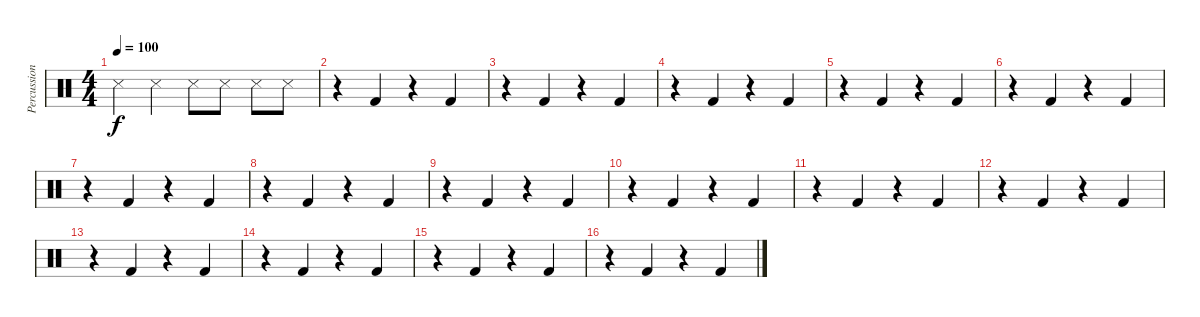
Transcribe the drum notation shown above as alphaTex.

\track ("Percussion" "Percussion") {instrument percussion}
\staff {score}
\articulation defaults
\ts (4 4)
\tempo 100
\clef neutral
\ks c "Snare (side stick) 3".4{dy f} "Snare (side stick) 3".4 "Snare (side stick) 3".8 "Snare (side stick) 3".8 "Snare (side stick) 3".8 "Snare (side stick) 3".8
|
r.4 "Kick (hit) 2".4 r.4 "Kick (hit) 2".4 |
r.4 "Kick (hit) 2".4 r.4 "Kick (hit) 2".4 |
r.4 "Kick (hit) 2".4 r.4 "Kick (hit) 2".4 |
r.4 "Kick (hit) 2".4 r.4 "Kick (hit) 2".4 |
r.4 "Kick (hit) 2".4 r.4 "Kick (hit) 2".4 |
r.4 "Kick (hit) 2".4 r.4 "Kick (hit) 2".4 |
r.4 "Kick (hit) 2".4 r.4 "Kick (hit) 2".4 |
r.4 "Kick (hit) 2".4 r.4 "Kick (hit) 2".4 |
r.4 "Kick (hit) 2".4 r.4 "Kick (hit) 2".4 |
r.4 "Kick (hit) 2".4 r.4 "Kick (hit) 2".4 |
r.4 "Kick (hit) 2".4 r.4 "Kick (hit) 2".4 |
r.4 "Kick (hit) 2".4 r.4 "Kick (hit) 2".4 |
r.4 "Kick (hit) 2".4 r.4 "Kick (hit) 2".4 |
r.4 "Kick (hit) 2".4 r.4 "Kick (hit) 2".4 |
r.4 "Kick (hit) 2".4 r.4 "Kick (hit) 2".4
